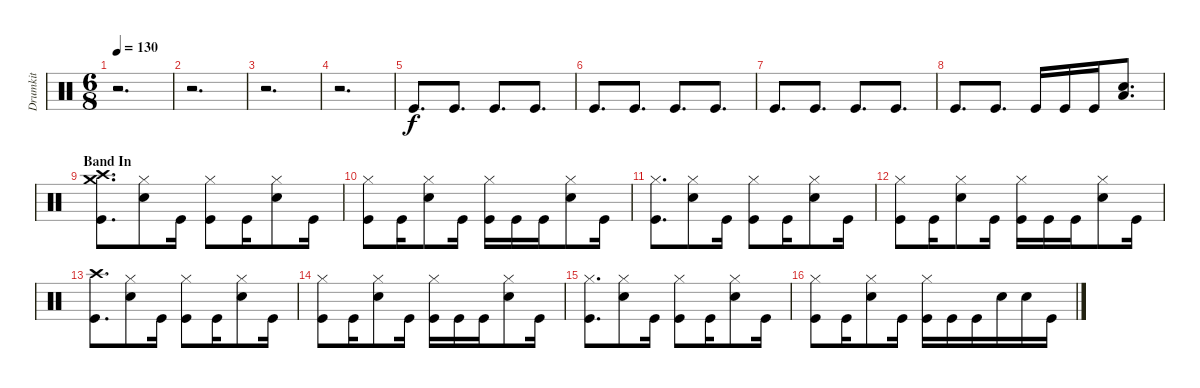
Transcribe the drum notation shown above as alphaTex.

\track ("Drumkit" "Drumkit") {instrument percussion}
\staff {score}
\articulation defaults
\ts (6 8)
\tempo 130
\clef neutral
\ks c
r.2{d dy f} |
r.2{d} |
r.2{d} |
r.2{d} |
"Kick (hit)".8{d} "Kick (hit)".8{d} "Kick (hit)".8{d} "Kick (hit)".8{d} |
"Kick (hit)".8{d} "Kick (hit)".8{d} "Kick (hit)".8{d} "Kick (hit)".8{d} |
"Kick (hit)".8{d} "Kick (hit)".8{d} "Kick (hit)".8{d} "Kick (hit)".8{d} |
"Kick (hit)".8{d} "Kick (hit)".8{d} "Kick (hit)".16 "Kick (hit)".16 "Kick (hit)".16 ("Low Tom (hit)" "Snare (hit) 2").8{d} |
\section ("" "Band In")
("Kick (hit)" "Crash high (hit)" "Crash medium (hit)").8{d} ("Snare (hit) 2" "Hi-Hat (closed)").8 "Kick (hit)".16 ("Kick (hit)" "Hi-Hat (closed)").8 "Kick (hit)".16 ("Snare (hit) 2" "Hi-Hat (closed)").8 "Kick (hit)".16 |
("Kick (hit)" "Hi-Hat (closed)").8 "Kick (hit)".16 ("Snare (hit) 2" "Hi-Hat (closed)").8 "Kick (hit)".16 ("Kick (hit)" "Hi-Hat (closed)").16 "Kick (hit)".16 "Kick (hit)".16 ("Snare (hit) 2" "Hi-Hat (closed)").8 "Kick (hit)".16 |
("Kick (hit)" "Hi-Hat (closed)").8{d} ("Snare (hit) 2" "Hi-Hat (closed)").8 "Kick (hit)".16 ("Kick (hit)" "Hi-Hat (closed)").8 "Kick (hit)".16 ("Snare (hit) 2" "Hi-Hat (closed)").8 "Kick (hit)".16 |
("Kick (hit)" "Hi-Hat (closed)").8 "Kick (hit)".16 ("Snare (hit) 2" "Hi-Hat (closed)").8 "Kick (hit)".16 ("Kick (hit)" "Hi-Hat (closed)").16 "Kick (hit)".16 "Kick (hit)".16 ("Snare (hit) 2" "Hi-Hat (closed)").8 "Kick (hit)".16 |
("Kick (hit)" "Crash high (hit)").8{d} ("Snare (hit) 2" "Hi-Hat (closed)").8 "Kick (hit)".16 ("Kick (hit)" "Hi-Hat (closed)").8 "Kick (hit)".16 ("Snare (hit) 2" "Hi-Hat (closed)").8 "Kick (hit)".16 |
("Kick (hit)" "Hi-Hat (closed)").8 "Kick (hit)".16 ("Snare (hit) 2" "Hi-Hat (closed)").8 "Kick (hit)".16 ("Kick (hit)" "Hi-Hat (closed)").16 "Kick (hit)".16 "Kick (hit)".16 ("Snare (hit) 2" "Hi-Hat (closed)").8 "Kick (hit)".16 |
("Kick (hit)" "Hi-Hat (closed)").8{d} ("Snare (hit) 2" "Hi-Hat (closed)").8 "Kick (hit)".16 ("Kick (hit)" "Hi-Hat (closed)").8 "Kick (hit)".16 ("Snare (hit) 2" "Hi-Hat (closed)").8 "Kick (hit)".16 |
("Kick (hit)" "Hi-Hat (closed)").8 "Kick (hit)".16 ("Snare (hit) 2" "Hi-Hat (closed)").8 "Kick (hit)".16 ("Kick (hit)" "Hi-Hat (closed)").16 "Kick (hit)".16 "Kick (hit)".16 "Snare (hit) 2".16 "Snare (hit) 2".16 "Kick (hit)".16
